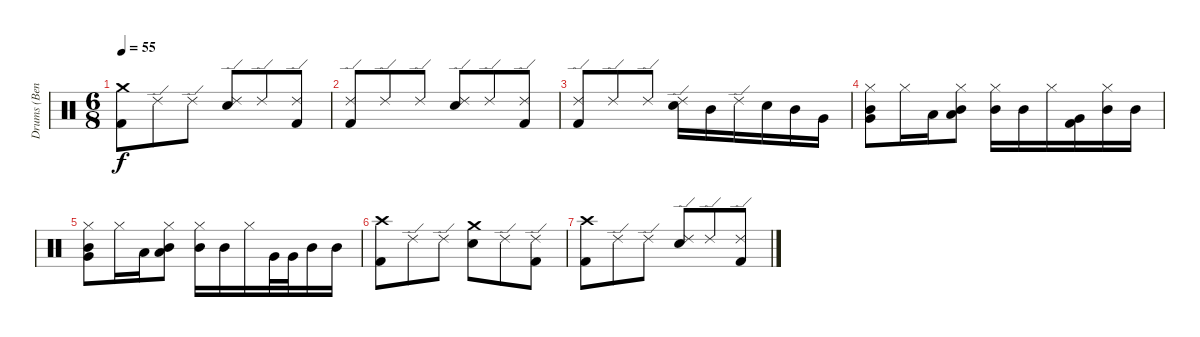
\track ("Drums (Bengerg)" "Drums (Ben") {instrument percussion}
\staff {score}
\articulation defaults
\ts (6 8)
\tempo 55
\clef neutral
\ks c
("Crash medium (hit)" "Kick (hit) 2").8{dy f} "Ride (edge) 2".8 "Ride (edge) 2".8 ("Ride (edge) 2" "Electric Snare (hit)").8 "Ride (edge) 2".8 ("Ride (edge) 2" "Kick (hit) 2").8 |
("Ride (edge) 2" "Kick (hit) 2").8 "Ride (edge) 2".8 "Ride (edge) 2".8 ("Ride (edge) 2" "Electric Snare (hit)").8 "Ride (edge) 2".8 ("Ride (edge) 2" "Kick (hit) 2").8 |
("Ride (edge) 2" "Kick (hit) 2").8 "Ride (edge) 2".8 "Ride (edge) 2".8 ("Ride (edge) 2" "Electric Snare (hit)").16 "Mid Tom (hit)".16 "Ride (edge) 2".16 "Electric Snare (hit)".16 "Mid Tom (hit)".16 "Very Low Tom (hit)".16 |
("Hi-Hat (closed)" "Mid Tom (hit)" "Very Low Tom (hit)").8 "Hi-Hat (closed)".16 "Low Tom (hit)".16 ("Hi-Hat (closed)" "Low Tom (hit)" "Mid Tom (hit)").8 ("Hi-Hat (closed)" "Mid Tom (hit)").16 "Mid Tom (hit)".16 "Hi-Hat (closed)".16 ("Very Low Tom (hit)" "Kick (hit) 2").16 ("Hi-Hat (closed)" "Mid Tom (hit)").16 "Mid Tom (hit)".16 |
("Hi-Hat (closed)" "Mid Tom (hit)" "Very Low Tom (hit)").8 "Hi-Hat (closed)".16 "Low Tom (hit)".16 ("Hi-Hat (closed)" "Low Tom (hit)" "Mid Tom (hit)").8 ("Hi-Hat (closed)" "Mid Tom (hit)").16 "Mid Tom (hit)".16 "Hi-Hat (closed)".16 "Very Low Tom (hit)".32 "Very Low Tom (hit)".32 "Mid Tom (hit)".16 "Mid Tom (hit)".16 |
("Crash high (hit)" "Kick (hit) 2").8 "Ride (edge) 2".8 "Ride (edge) 2".8 ("Crash medium (hit)" "Electric Snare (hit)").8 "Ride (edge) 2".8 ("Ride (edge) 2" "Kick (hit) 2").8 |
("Crash high (hit)" "Kick (hit) 2").8 "Ride (edge) 2".8 "Ride (edge) 2".8 ("Ride (edge) 2" "Electric Snare (hit)").8 "Ride (edge) 2".8 ("Ride (edge) 2" "Kick (hit) 2").8
